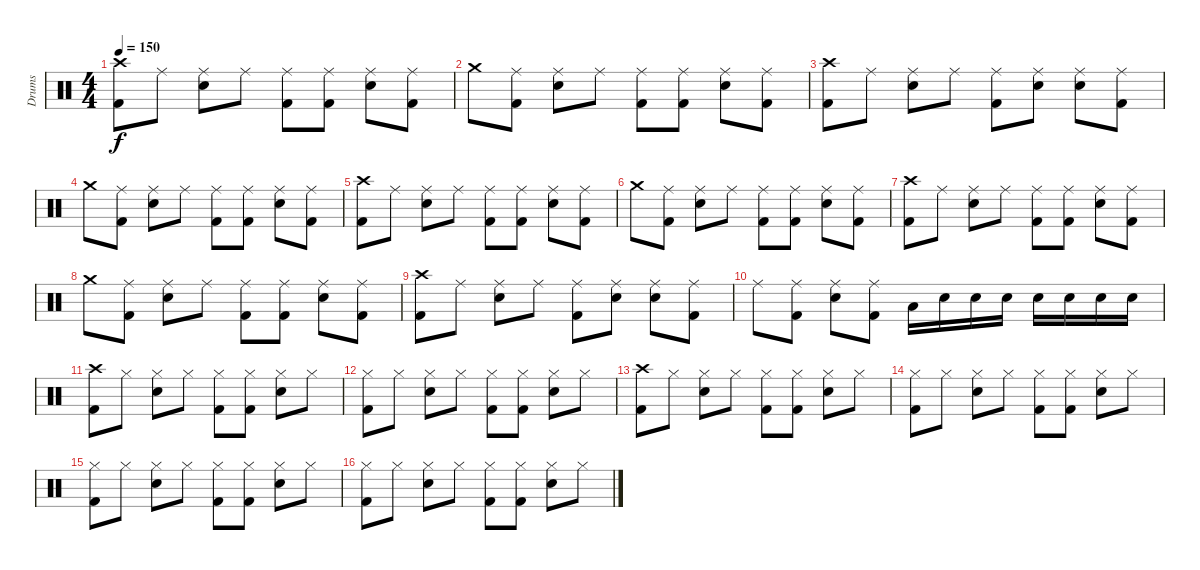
\track ("Drums" "Drums") {instrument percussion}
\staff {score}
\articulation defaults
\ts (4 4)
\tempo 150
\clef neutral
\ks c
("Crash high (hit)" "Kick (hit) 2").8{dy f} "Ride (middle)".8 ("Ride (middle)" "Electric Snare (hit)").8 "Ride (middle)".8 ("Ride (middle)" "Kick (hit) 2").8 ("Ride (middle)" "Kick (hit) 2").8 ("Ride (middle)" "Electric Snare (hit)").8 ("Ride (middle)" "Kick (hit) 2").8 |
"Crash medium (hit)".8 ("Ride (middle)" "Kick (hit) 2").8 ("Ride (middle)" "Electric Snare (hit)").8 "Ride (middle)".8 ("Ride (middle)" "Kick (hit) 2").8 ("Ride (middle)" "Kick (hit) 2").8 ("Ride (middle)" "Electric Snare (hit)").8 ("Ride (middle)" "Kick (hit) 2").8 |
("Crash high (hit)" "Kick (hit) 2").8 "Ride (middle)".8 ("Ride (middle)" "Electric Snare (hit)").8 "Ride (middle)".8 ("Ride (middle)" "Kick (hit) 2").8 ("Ride (middle)" "Electric Snare (hit)").8 ("Ride (middle)" "Electric Snare (hit)").8 ("Ride (middle)" "Kick (hit) 2").8 |
"Crash medium (hit)".8 ("Ride (middle)" "Kick (hit) 2").8 ("Ride (middle)" "Electric Snare (hit)").8 "Ride (middle)".8 ("Ride (middle)" "Kick (hit) 2").8 ("Ride (middle)" "Kick (hit) 2").8 ("Ride (middle)" "Electric Snare (hit)").8 ("Ride (middle)" "Kick (hit) 2").8 |
("Crash high (hit)" "Kick (hit) 2").8 "Ride (middle)".8 ("Ride (middle)" "Electric Snare (hit)").8 "Ride (middle)".8 ("Ride (middle)" "Kick (hit) 2").8 ("Ride (middle)" "Kick (hit) 2").8 ("Ride (middle)" "Electric Snare (hit)").8 ("Ride (middle)" "Kick (hit) 2").8 |
"Crash medium (hit)".8 ("Ride (middle)" "Kick (hit) 2").8 ("Ride (middle)" "Electric Snare (hit)").8 "Ride (middle)".8 ("Ride (middle)" "Kick (hit) 2").8 ("Ride (middle)" "Kick (hit) 2").8 ("Ride (middle)" "Electric Snare (hit)").8 ("Ride (middle)" "Kick (hit) 2").8 |
("Crash high (hit)" "Kick (hit) 2").8 "Ride (middle)".8 ("Ride (middle)" "Electric Snare (hit)").8 "Ride (middle)".8 ("Ride (middle)" "Kick (hit) 2").8 ("Ride (middle)" "Kick (hit) 2").8 ("Ride (middle)" "Electric Snare (hit)").8 ("Ride (middle)" "Kick (hit) 2").8 |
"Crash medium (hit)".8 ("Ride (middle)" "Kick (hit) 2").8 ("Ride (middle)" "Electric Snare (hit)").8 "Ride (middle)".8 ("Ride (middle)" "Kick (hit) 2").8 ("Ride (middle)" "Kick (hit) 2").8 ("Ride (middle)" "Electric Snare (hit)").8 ("Ride (middle)" "Kick (hit) 2").8 |
("Crash high (hit)" "Kick (hit) 2").8 "Ride (middle)".8 ("Ride (middle)" "Electric Snare (hit)").8 "Ride (middle)".8 ("Ride (middle)" "Kick (hit) 2").8 ("Ride (middle)" "Electric Snare (hit)").8 ("Ride (middle)" "Electric Snare (hit)").8 ("Ride (middle)" "Kick (hit) 2").8 |
"Ride (middle)".8 ("Ride (middle)" "Kick (hit) 2").8 ("Ride (middle)" "Electric Snare (hit)").8 ("Ride (middle)" "Kick (hit) 2").8 "Low Floor Tom (hit)".16 "Electric Snare (hit)".16 "Electric Snare (hit)".16 "Electric Snare (hit)".16 "Electric Snare (hit)".16 "Electric Snare (hit)".16 "Electric Snare (hit)".16 "Electric Snare (hit)".16 |
("Crash high (hit)" "Kick (hit) 2").8 "Hi-Hat (closed)".8 ("Hi-Hat (closed)" "Electric Snare (hit)").8 "Hi-Hat (closed)".8 ("Hi-Hat (closed)" "Kick (hit) 2").8 ("Hi-Hat (closed)" "Kick (hit) 2").8 ("Hi-Hat (closed)" "Electric Snare (hit)").8 "Hi-Hat (closed)".8 |
("Hi-Hat (closed)" "Kick (hit) 2").8 "Hi-Hat (closed)".8 ("Hi-Hat (closed)" "Electric Snare (hit)").8 "Hi-Hat (closed)".8 ("Hi-Hat (closed)" "Kick (hit) 2").8 ("Hi-Hat (closed)" "Kick (hit) 2").8 ("Hi-Hat (closed)" "Electric Snare (hit)").8 "Hi-Hat (closed)".8 |
("Crash high (hit)" "Kick (hit) 2").8 "Hi-Hat (closed)".8 ("Hi-Hat (closed)" "Electric Snare (hit)").8 "Hi-Hat (closed)".8 ("Hi-Hat (closed)" "Kick (hit) 2").8 ("Hi-Hat (closed)" "Kick (hit) 2").8 ("Hi-Hat (closed)" "Electric Snare (hit)").8 "Hi-Hat (closed)".8 |
("Hi-Hat (closed)" "Kick (hit) 2").8 "Hi-Hat (closed)".8 ("Hi-Hat (closed)" "Electric Snare (hit)").8 "Hi-Hat (closed)".8 ("Hi-Hat (closed)" "Kick (hit) 2").8 ("Hi-Hat (closed)" "Kick (hit) 2").8 ("Hi-Hat (closed)" "Electric Snare (hit)").8 "Hi-Hat (closed)".8 |
("Hi-Hat (closed)" "Kick (hit) 2").8 "Hi-Hat (closed)".8 ("Hi-Hat (closed)" "Electric Snare (hit)").8 "Hi-Hat (closed)".8 ("Hi-Hat (closed)" "Kick (hit) 2").8 ("Hi-Hat (closed)" "Kick (hit) 2").8 ("Hi-Hat (closed)" "Electric Snare (hit)").8 "Hi-Hat (closed)".8 |
("Hi-Hat (closed)" "Kick (hit) 2").8 "Hi-Hat (closed)".8 ("Hi-Hat (closed)" "Electric Snare (hit)").8 "Hi-Hat (closed)".8 ("Hi-Hat (closed)" "Kick (hit) 2").8 ("Hi-Hat (closed)" "Kick (hit) 2").8 ("Hi-Hat (closed)" "Electric Snare (hit)").8 "Hi-Hat (closed)".8
